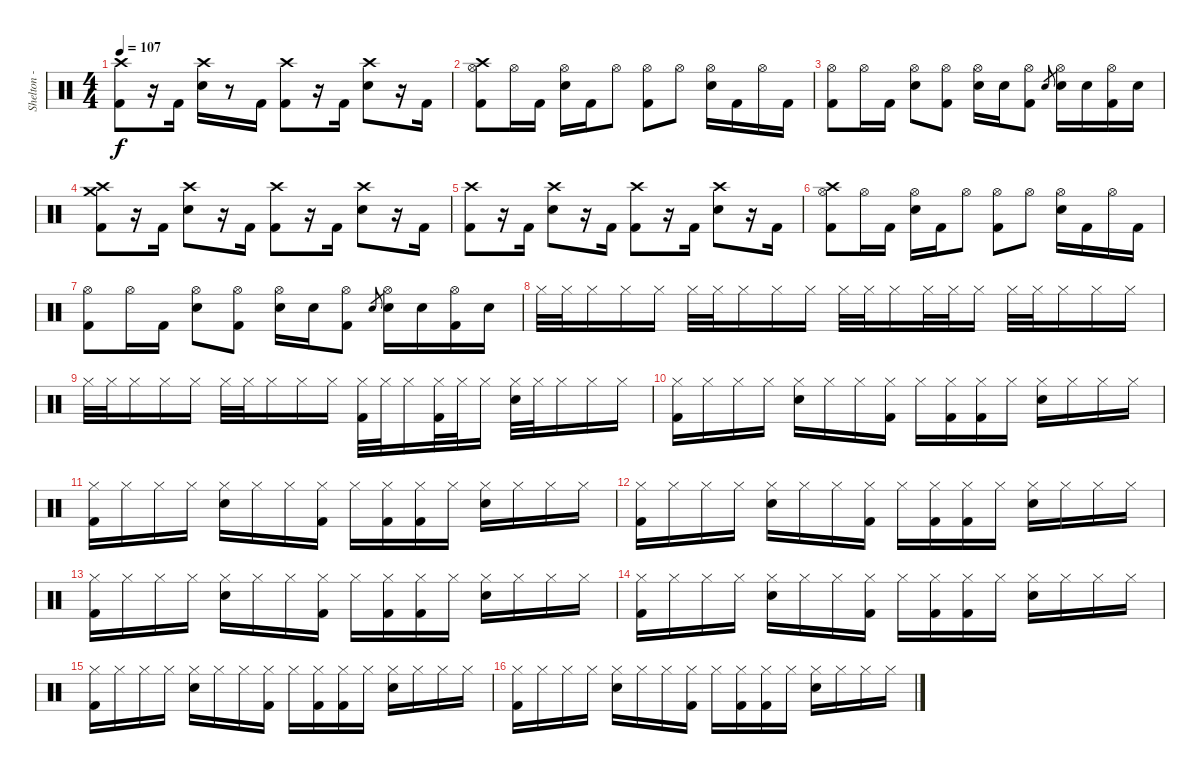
\track ("Shelton - Drums" "Shelton - ") {instrument percussion}
\staff {score}
\articulation defaults
\ts (4 4)
\tempo 107
\clef neutral
\ks c
("Crash high (hit)" "Kick (hit) 2").8{dy f} r.16 "Kick (hit) 2".16 ("Crash high (hit)" "Electric Snare (hit)").16 r.8 "Kick (hit) 2".16 ("Crash high (hit)" "Kick (hit) 2").8 r.16 "Kick (hit) 2".16 ("Crash high (hit)" "Electric Snare (hit)").8 r.16 "Kick (hit) 2".16 |
("Hi-Hat (open)" "Crash high (hit)" "Kick (hit) 2").8 "Hi-Hat (open)".16 "Kick (hit) 2".16 ("Hi-Hat (open)" "Electric Snare (hit)").16 "Kick (hit) 2".16 "Hi-Hat (open)".8 ("Hi-Hat (open)" "Kick (hit) 2").8 "Hi-Hat (open)".8 ("Hi-Hat (open)" "Electric Snare (hit)").16 "Kick (hit) 2".16 "Hi-Hat (open)".16 "Kick (hit) 2".16 |
("Hi-Hat (open)" "Kick (hit) 2").8 "Hi-Hat (open)".16 "Kick (hit) 2".16 ("Hi-Hat (open)" "Electric Snare (hit)").8 ("Hi-Hat (open)" "Kick (hit) 2").8 ("Hi-Hat (open)" "Electric Snare (hit)").16 "Electric Snare (hit)".16 ("Hi-Hat (open)" "Kick (hit) 2").8 "Electric Snare (hit)".8{gr} ("Hi-Hat (open)" "Electric Snare (hit)").16 "Electric Snare (hit)".16 ("Hi-Hat (open)" "Kick (hit) 2").16 "Electric Snare (hit)".16 |
("Crash high (hit)" "Crash medium (hit)" "Kick (hit) 2").8 r.16 "Kick (hit) 2".16 ("Crash high (hit)" "Electric Snare (hit)").8 r.16 "Kick (hit) 2".16 ("Crash high (hit)" "Kick (hit) 2").8 r.16 "Kick (hit) 2".16 ("Crash high (hit)" "Electric Snare (hit)").8 r.16 "Kick (hit) 2".16 |
("Crash high (hit)" "Kick (hit) 2").8 r.16 "Kick (hit) 2".16 ("Crash high (hit)" "Electric Snare (hit)").8 r.16 "Kick (hit) 2".16 ("Crash high (hit)" "Kick (hit) 2").8 r.16 "Kick (hit) 2".16 ("Crash high (hit)" "Electric Snare (hit)").8 r.16 "Kick (hit) 2".16 |
("Hi-Hat (open)" "Crash high (hit)" "Kick (hit) 2").8 "Hi-Hat (open)".16 "Kick (hit) 2".16 ("Hi-Hat (open)" "Electric Snare (hit)").16 "Kick (hit) 2".16 "Hi-Hat (open)".8 ("Hi-Hat (open)" "Kick (hit) 2").8 "Hi-Hat (open)".8 ("Hi-Hat (open)" "Electric Snare (hit)").16 "Kick (hit) 2".16 "Hi-Hat (open)".16 "Kick (hit) 2".16 |
("Hi-Hat (open)" "Kick (hit) 2").8 "Hi-Hat (open)".16 "Kick (hit) 2".16 ("Hi-Hat (open)" "Electric Snare (hit)").8 ("Hi-Hat (open)" "Kick (hit) 2").8 ("Hi-Hat (open)" "Electric Snare (hit)").16 "Electric Snare (hit)".16 ("Hi-Hat (open)" "Kick (hit) 2").8 "Electric Snare (hit)".8{gr} ("Hi-Hat (open)" "Electric Snare (hit)").16 "Electric Snare (hit)".16 ("Hi-Hat (open)" "Kick (hit) 2").16 "Electric Snare (hit)".16 |
"Hi-Hat (closed)".32 "Hi-Hat (closed)".32 "Hi-Hat (closed)".16 "Hi-Hat (closed)".16 "Hi-Hat (closed)".16 "Hi-Hat (closed)".32 "Hi-Hat (closed)".32 "Hi-Hat (closed)".16 "Hi-Hat (closed)".16 "Hi-Hat (closed)".16 "Hi-Hat (closed)".32 "Hi-Hat (closed)".32 "Hi-Hat (closed)".16 "Hi-Hat (closed)".32 "Hi-Hat (closed)".32 "Hi-Hat (closed)".16 "Hi-Hat (closed)".32 "Hi-Hat (closed)".32 "Hi-Hat (closed)".16 "Hi-Hat (closed)".16 "Hi-Hat (closed)".16 |
"Hi-Hat (closed)".32 "Hi-Hat (closed)".32 "Hi-Hat (closed)".16 "Hi-Hat (closed)".16 "Hi-Hat (closed)".16 "Hi-Hat (closed)".32 "Hi-Hat (closed)".32 "Hi-Hat (closed)".16 "Hi-Hat (closed)".16 "Hi-Hat (closed)".16 ("Hi-Hat (closed)" "Kick (hit) 2").32 "Hi-Hat (closed)".32 "Hi-Hat (closed)".16 ("Hi-Hat (closed)" "Kick (hit) 2").32 "Hi-Hat (closed)".32 "Hi-Hat (closed)".16 ("Hi-Hat (closed)" "Electric Snare (hit)").32 "Hi-Hat (closed)".32 "Hi-Hat (closed)".16 "Hi-Hat (closed)".16 "Hi-Hat (closed)".16 |
("Hi-Hat (closed)" "Kick (hit) 2").16 "Hi-Hat (closed)".16 "Hi-Hat (closed)".16 "Hi-Hat (closed)".16 ("Hi-Hat (closed)" "Electric Snare (hit)").16 "Hi-Hat (closed)".16 "Hi-Hat (closed)".16 ("Hi-Hat (closed)" "Kick (hit) 2").16 "Hi-Hat (closed)".16 ("Hi-Hat (closed)" "Kick (hit) 2").16 ("Hi-Hat (closed)" "Kick (hit) 2").16 "Hi-Hat (closed)".16 ("Hi-Hat (closed)" "Electric Snare (hit)").16 "Hi-Hat (closed)".16 "Hi-Hat (closed)".16 "Hi-Hat (closed)".16 |
("Hi-Hat (closed)" "Kick (hit) 2").16 "Hi-Hat (closed)".16 "Hi-Hat (closed)".16 "Hi-Hat (closed)".16 ("Hi-Hat (closed)" "Electric Snare (hit)").16 "Hi-Hat (closed)".16 "Hi-Hat (closed)".16 ("Hi-Hat (closed)" "Kick (hit) 2").16 "Hi-Hat (closed)".16 ("Hi-Hat (closed)" "Kick (hit) 2").16 ("Hi-Hat (closed)" "Kick (hit) 2").16 "Hi-Hat (closed)".16 ("Hi-Hat (closed)" "Electric Snare (hit)").16 "Hi-Hat (closed)".16 "Hi-Hat (closed)".16 "Hi-Hat (closed)".16 |
("Hi-Hat (closed)" "Kick (hit) 2").16 "Hi-Hat (closed)".16 "Hi-Hat (closed)".16 "Hi-Hat (closed)".16 ("Hi-Hat (closed)" "Electric Snare (hit)").16 "Hi-Hat (closed)".16 "Hi-Hat (closed)".16 ("Hi-Hat (closed)" "Kick (hit) 2").16 "Hi-Hat (closed)".16 ("Hi-Hat (closed)" "Kick (hit) 2").16 ("Hi-Hat (closed)" "Kick (hit) 2").16 "Hi-Hat (closed)".16 ("Hi-Hat (closed)" "Electric Snare (hit)").16 "Hi-Hat (closed)".16 "Hi-Hat (closed)".16 "Hi-Hat (closed)".16 |
("Hi-Hat (closed)" "Kick (hit) 2").16 "Hi-Hat (closed)".16 "Hi-Hat (closed)".16 "Hi-Hat (closed)".16 ("Hi-Hat (closed)" "Electric Snare (hit)").16 "Hi-Hat (closed)".16 "Hi-Hat (closed)".16 ("Hi-Hat (closed)" "Kick (hit) 2").16 "Hi-Hat (closed)".16 ("Hi-Hat (closed)" "Kick (hit) 2").16 ("Hi-Hat (closed)" "Kick (hit) 2").16 "Hi-Hat (closed)".16 ("Hi-Hat (closed)" "Electric Snare (hit)").16 "Hi-Hat (closed)".16 "Hi-Hat (closed)".16 "Hi-Hat (closed)".16 |
("Hi-Hat (closed)" "Kick (hit) 2").16 "Hi-Hat (closed)".16 "Hi-Hat (closed)".16 "Hi-Hat (closed)".16 ("Hi-Hat (closed)" "Electric Snare (hit)").16 "Hi-Hat (closed)".16 "Hi-Hat (closed)".16 ("Hi-Hat (closed)" "Kick (hit) 2").16 "Hi-Hat (closed)".16 ("Hi-Hat (closed)" "Kick (hit) 2").16 ("Hi-Hat (closed)" "Kick (hit) 2").16 "Hi-Hat (closed)".16 ("Hi-Hat (closed)" "Electric Snare (hit)").16 "Hi-Hat (closed)".16 "Hi-Hat (closed)".16 "Hi-Hat (closed)".16 |
("Hi-Hat (closed)" "Kick (hit) 2").16 "Hi-Hat (closed)".16 "Hi-Hat (closed)".16 "Hi-Hat (closed)".16 ("Hi-Hat (closed)" "Electric Snare (hit)").16 "Hi-Hat (closed)".16 "Hi-Hat (closed)".16 ("Hi-Hat (closed)" "Kick (hit) 2").16 "Hi-Hat (closed)".16 ("Hi-Hat (closed)" "Kick (hit) 2").16 ("Hi-Hat (closed)" "Kick (hit) 2").16 "Hi-Hat (closed)".16 ("Hi-Hat (closed)" "Electric Snare (hit)").16 "Hi-Hat (closed)".16 "Hi-Hat (closed)".16 "Hi-Hat (closed)".16 |
("Hi-Hat (closed)" "Kick (hit) 2").16 "Hi-Hat (closed)".16 "Hi-Hat (closed)".16 "Hi-Hat (closed)".16 ("Hi-Hat (closed)" "Electric Snare (hit)").16 "Hi-Hat (closed)".16 "Hi-Hat (closed)".16 ("Hi-Hat (closed)" "Kick (hit) 2").16 "Hi-Hat (closed)".16 ("Hi-Hat (closed)" "Kick (hit) 2").16 ("Hi-Hat (closed)" "Kick (hit) 2").16 "Hi-Hat (closed)".16 ("Hi-Hat (closed)" "Electric Snare (hit)").16 "Hi-Hat (closed)".16 "Hi-Hat (closed)".16 "Hi-Hat (closed)".16
